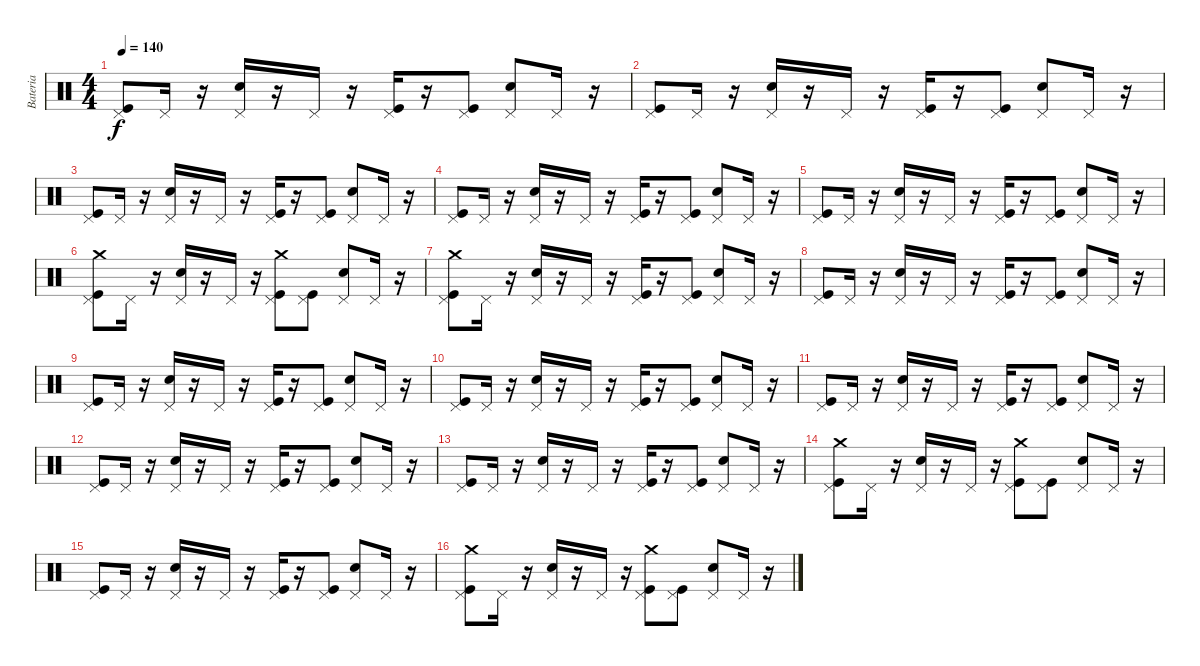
\track ("Bateria" "Bateria") {instrument percussion}
\staff {score}
\articulation defaults
\ts (4 4)
\tempo 140
\clef neutral
\ks c
("Pedal Hi-Hat (hit)" "Kick (hit)").8{dy f} "Pedal Hi-Hat (hit)".16 r.16 ("Pedal Hi-Hat (hit)" "Snare (hit) 2").16 r.16 "Pedal Hi-Hat (hit)".16 r.16 ("Pedal Hi-Hat (hit)" "Kick (hit)").16 r.16 ("Pedal Hi-Hat (hit)" "Kick (hit)").8 ("Pedal Hi-Hat (hit)" "Snare (hit) 2").8 "Pedal Hi-Hat (hit)".16 r.16 |
("Pedal Hi-Hat (hit)" "Kick (hit)").8 "Pedal Hi-Hat (hit)".16 r.16 ("Pedal Hi-Hat (hit)" "Snare (hit) 2").16 r.16 "Pedal Hi-Hat (hit)".16 r.16 ("Pedal Hi-Hat (hit)" "Kick (hit)").16 r.16 ("Pedal Hi-Hat (hit)" "Kick (hit)").8 ("Pedal Hi-Hat (hit)" "Snare (hit) 2").8 "Pedal Hi-Hat (hit)".16 r.16 |
("Pedal Hi-Hat (hit)" "Kick (hit)").8 "Pedal Hi-Hat (hit)".16 r.16 ("Pedal Hi-Hat (hit)" "Snare (hit) 2").16 r.16 "Pedal Hi-Hat (hit)".16 r.16 ("Pedal Hi-Hat (hit)" "Kick (hit)").16 r.16 ("Pedal Hi-Hat (hit)" "Kick (hit)").8 ("Pedal Hi-Hat (hit)" "Snare (hit) 2").8 "Pedal Hi-Hat (hit)".16 r.16 |
("Pedal Hi-Hat (hit)" "Kick (hit)").8 "Pedal Hi-Hat (hit)".16 r.16 ("Pedal Hi-Hat (hit)" "Snare (hit) 2").16 r.16 "Pedal Hi-Hat (hit)".16 r.16 ("Pedal Hi-Hat (hit)" "Kick (hit)").16 r.16 ("Pedal Hi-Hat (hit)" "Kick (hit)").8 ("Pedal Hi-Hat (hit)" "Snare (hit) 2").8 "Pedal Hi-Hat (hit)".16 r.16 |
("Pedal Hi-Hat (hit)" "Kick (hit)").8 "Pedal Hi-Hat (hit)".16 r.16 ("Pedal Hi-Hat (hit)" "Snare (hit) 2").16 r.16 "Pedal Hi-Hat (hit)".16 r.16 ("Pedal Hi-Hat (hit)" "Kick (hit)").16 r.16 ("Pedal Hi-Hat (hit)" "Kick (hit)").8 ("Pedal Hi-Hat (hit)" "Snare (hit) 2").8 "Pedal Hi-Hat (hit)".16 r.16 |
("Crash medium (hit)" "Pedal Hi-Hat (hit)" "Kick (hit)").8 "Pedal Hi-Hat (hit)".16 r.16 ("Pedal Hi-Hat (hit)" "Snare (hit) 2").16 r.16 "Pedal Hi-Hat (hit)".16 r.16 ("Crash medium (hit)" "Pedal Hi-Hat (hit)" "Kick (hit)").8 ("Pedal Hi-Hat (hit)" "Kick (hit)").8 ("Pedal Hi-Hat (hit)" "Snare (hit) 2").8 "Pedal Hi-Hat (hit)".16 r.16 |
("Crash medium (hit)" "Pedal Hi-Hat (hit)" "Kick (hit)").8 "Pedal Hi-Hat (hit)".16 r.16 ("Pedal Hi-Hat (hit)" "Snare (hit) 2").16 r.16 "Pedal Hi-Hat (hit)".16 r.16 ("Pedal Hi-Hat (hit)" "Kick (hit)").16 r.16 ("Pedal Hi-Hat (hit)" "Kick (hit)").8 ("Pedal Hi-Hat (hit)" "Snare (hit) 2").8 "Pedal Hi-Hat (hit)".16 r.16 |
("Pedal Hi-Hat (hit)" "Kick (hit)").8 "Pedal Hi-Hat (hit)".16 r.16 ("Pedal Hi-Hat (hit)" "Snare (hit) 2").16 r.16 "Pedal Hi-Hat (hit)".16 r.16 ("Pedal Hi-Hat (hit)" "Kick (hit)").16 r.16 ("Pedal Hi-Hat (hit)" "Kick (hit)").8 ("Pedal Hi-Hat (hit)" "Snare (hit) 2").8 "Pedal Hi-Hat (hit)".16 r.16 |
("Pedal Hi-Hat (hit)" "Kick (hit)").8 "Pedal Hi-Hat (hit)".16 r.16 ("Pedal Hi-Hat (hit)" "Snare (hit) 2").16 r.16 "Pedal Hi-Hat (hit)".16 r.16 ("Pedal Hi-Hat (hit)" "Kick (hit)").16 r.16 ("Pedal Hi-Hat (hit)" "Kick (hit)").8 ("Pedal Hi-Hat (hit)" "Snare (hit) 2").8 "Pedal Hi-Hat (hit)".16 r.16 |
("Pedal Hi-Hat (hit)" "Kick (hit)").8 "Pedal Hi-Hat (hit)".16 r.16 ("Pedal Hi-Hat (hit)" "Snare (hit) 2").16 r.16 "Pedal Hi-Hat (hit)".16 r.16 ("Pedal Hi-Hat (hit)" "Kick (hit)").16 r.16 ("Pedal Hi-Hat (hit)" "Kick (hit)").8 ("Pedal Hi-Hat (hit)" "Snare (hit) 2").8 "Pedal Hi-Hat (hit)".16 r.16 |
("Pedal Hi-Hat (hit)" "Kick (hit)").8 "Pedal Hi-Hat (hit)".16 r.16 ("Pedal Hi-Hat (hit)" "Snare (hit) 2").16 r.16 "Pedal Hi-Hat (hit)".16 r.16 ("Pedal Hi-Hat (hit)" "Kick (hit)").16 r.16 ("Pedal Hi-Hat (hit)" "Kick (hit)").8 ("Pedal Hi-Hat (hit)" "Snare (hit) 2").8 "Pedal Hi-Hat (hit)".16 r.16 |
("Pedal Hi-Hat (hit)" "Kick (hit)").8 "Pedal Hi-Hat (hit)".16 r.16 ("Pedal Hi-Hat (hit)" "Snare (hit) 2").16 r.16 "Pedal Hi-Hat (hit)".16 r.16 ("Pedal Hi-Hat (hit)" "Kick (hit)").16 r.16 ("Pedal Hi-Hat (hit)" "Kick (hit)").8 ("Pedal Hi-Hat (hit)" "Snare (hit) 2").8 "Pedal Hi-Hat (hit)".16 r.16 |
("Pedal Hi-Hat (hit)" "Kick (hit)").8 "Pedal Hi-Hat (hit)".16 r.16 ("Pedal Hi-Hat (hit)" "Snare (hit) 2").16 r.16 "Pedal Hi-Hat (hit)".16 r.16 ("Pedal Hi-Hat (hit)" "Kick (hit)").16 r.16 ("Pedal Hi-Hat (hit)" "Kick (hit)").8 ("Pedal Hi-Hat (hit)" "Snare (hit) 2").8 "Pedal Hi-Hat (hit)".16 r.16 |
("Crash medium (hit)" "Pedal Hi-Hat (hit)" "Kick (hit)").8 "Pedal Hi-Hat (hit)".16 r.16 ("Pedal Hi-Hat (hit)" "Snare (hit) 2").16 r.16 "Pedal Hi-Hat (hit)".16 r.16 ("Crash medium (hit)" "Pedal Hi-Hat (hit)" "Kick (hit)").8 ("Pedal Hi-Hat (hit)" "Kick (hit)").8 ("Pedal Hi-Hat (hit)" "Snare (hit) 2").8 "Pedal Hi-Hat (hit)".16 r.16 |
("Pedal Hi-Hat (hit)" "Kick (hit)").8 "Pedal Hi-Hat (hit)".16 r.16 ("Pedal Hi-Hat (hit)" "Snare (hit) 2").16 r.16 "Pedal Hi-Hat (hit)".16 r.16 ("Pedal Hi-Hat (hit)" "Kick (hit)").16 r.16 ("Pedal Hi-Hat (hit)" "Kick (hit)").8 ("Pedal Hi-Hat (hit)" "Snare (hit) 2").8 "Pedal Hi-Hat (hit)".16 r.16 |
("Pedal Hi-Hat (hit)" "Kick (hit)" "Crash medium (hit)").8 "Pedal Hi-Hat (hit)".16 r.16 ("Pedal Hi-Hat (hit)" "Snare (hit) 2").16 r.16 "Pedal Hi-Hat (hit)".16 r.16 ("Crash medium (hit)" "Pedal Hi-Hat (hit)" "Kick (hit)").8 ("Pedal Hi-Hat (hit)" "Kick (hit)").8 ("Pedal Hi-Hat (hit)" "Snare (hit) 2").8 "Pedal Hi-Hat (hit)".16 r.16
